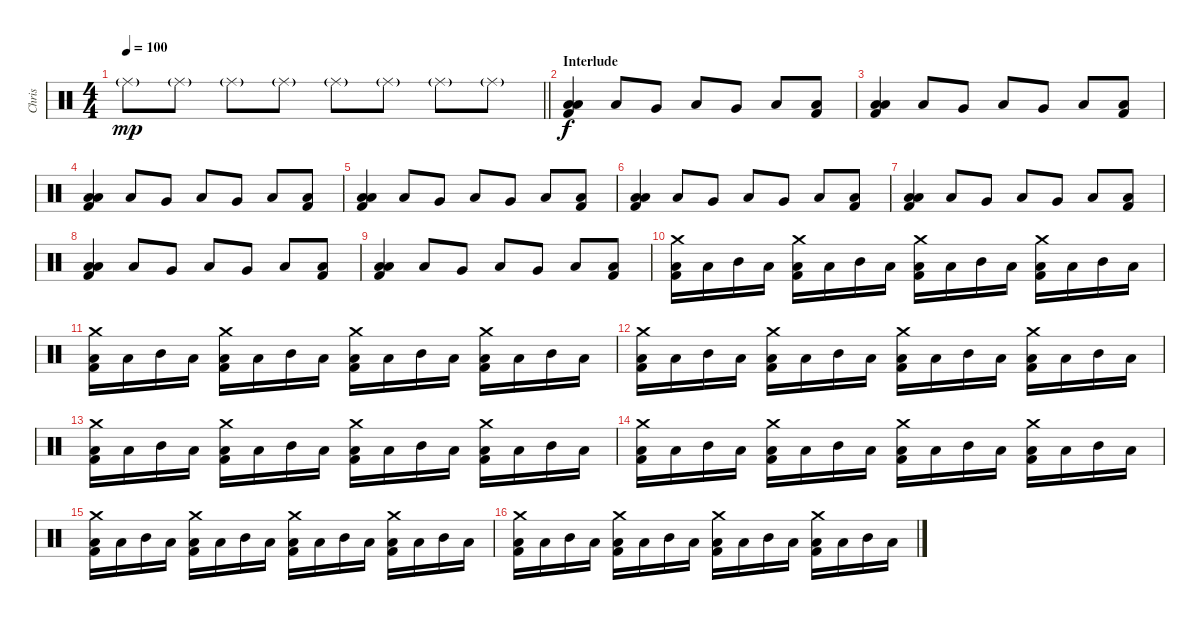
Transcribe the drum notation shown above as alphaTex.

\track ("Chris" "Chris") {instrument percussion}
\staff {score}
\articulation defaults
\ts (4 4)
\tempo 100
\clef neutral
\barLineRight lightlight
\ks c "Ride (middle)"{g}.8{dy mp} "Ride (middle)"{g}.8 "Ride (middle)"{g}.8 "Ride (middle)"{g}.8 "Ride (middle)"{g}.8 "Ride (middle)"{g}.8 "Ride (middle)"{g}.8 "Ride (middle)"{g}.8
|
\section ("" "Interlude")
("Low Floor Tom (hit)" "Low Tom (hit)" "Kick (hit) 2").4{dy f} "Low Floor Tom (hit)".8 "Very Low Tom (hit)".8 "Low Tom (hit)".8 "Very Low Tom (hit)".8 "Low Floor Tom (hit)".8 ("Low Floor Tom (hit)" "Kick (hit) 2").8 |
("Low Floor Tom (hit)" "Low Tom (hit)" "Kick (hit) 2").4 "Low Floor Tom (hit)".8 "Very Low Tom (hit)".8 "Low Tom (hit)".8 "Very Low Tom (hit)".8 "Low Floor Tom (hit)".8 ("Low Floor Tom (hit)" "Kick (hit) 2").8 |
("Low Floor Tom (hit)" "Low Tom (hit)" "Kick (hit) 2").4 "Low Floor Tom (hit)".8 "Very Low Tom (hit)".8 "Low Tom (hit)".8 "Very Low Tom (hit)".8 "Low Floor Tom (hit)".8 ("Low Floor Tom (hit)" "Kick (hit) 2").8 |
("Low Floor Tom (hit)" "Low Tom (hit)" "Kick (hit) 2").4 "Low Floor Tom (hit)".8 "Very Low Tom (hit)".8 "Low Tom (hit)".8 "Very Low Tom (hit)".8 "Low Floor Tom (hit)".8 ("Low Floor Tom (hit)" "Kick (hit) 2").8 |
("Low Floor Tom (hit)" "Low Tom (hit)" "Kick (hit) 2").4 "Low Floor Tom (hit)".8 "Very Low Tom (hit)".8 "Low Tom (hit)".8 "Very Low Tom (hit)".8 "Low Floor Tom (hit)".8 ("Low Floor Tom (hit)" "Kick (hit) 2").8 |
("Low Floor Tom (hit)" "Low Tom (hit)" "Kick (hit) 2").4 "Low Floor Tom (hit)".8 "Very Low Tom (hit)".8 "Low Tom (hit)".8 "Very Low Tom (hit)".8 "Low Floor Tom (hit)".8 ("Low Floor Tom (hit)" "Kick (hit) 2").8 |
("Low Floor Tom (hit)" "Low Tom (hit)" "Kick (hit) 2").4 "Low Floor Tom (hit)".8 "Very Low Tom (hit)".8 "Low Tom (hit)".8 "Very Low Tom (hit)".8 "Low Floor Tom (hit)".8 ("Low Floor Tom (hit)" "Kick (hit) 2").8 |
("Low Floor Tom (hit)" "Low Tom (hit)" "Kick (hit) 2").4 "Low Floor Tom (hit)".8 "Very Low Tom (hit)".8 "Low Tom (hit)".8 "Very Low Tom (hit)".8 "Low Floor Tom (hit)".8 ("Low Floor Tom (hit)" "Kick (hit) 2").8 |
("Crash medium (hit)" "Low Tom (hit)" "Kick (hit) 2").16 "Low Tom (hit)".16 "Mid Tom (hit)".16 "Low Tom (hit)".16 ("Crash medium (hit)" "Low Tom (hit)" "Kick (hit) 2").16 "Low Tom (hit)".16 "Mid Tom (hit)".16 "Low Tom (hit)".16 ("Crash medium (hit)" "Low Tom (hit)" "Kick (hit) 2").16 "Low Tom (hit)".16 "Mid Tom (hit)".16 "Low Tom (hit)".16 ("Crash medium (hit)" "Low Tom (hit)" "Kick (hit) 2").16 "Low Tom (hit)".16 "Mid Tom (hit)".16 "Low Tom (hit)".16 |
("Crash medium (hit)" "Low Tom (hit)" "Kick (hit) 2").16 "Low Tom (hit)".16 "Mid Tom (hit)".16 "Low Tom (hit)".16 ("Crash medium (hit)" "Low Tom (hit)" "Kick (hit) 2").16 "Low Tom (hit)".16 "Mid Tom (hit)".16 "Low Tom (hit)".16 ("Crash medium (hit)" "Low Tom (hit)" "Kick (hit) 2").16 "Low Tom (hit)".16 "Mid Tom (hit)".16 "Low Tom (hit)".16 ("Crash medium (hit)" "Low Tom (hit)" "Kick (hit) 2").16 "Low Tom (hit)".16 "Mid Tom (hit)".16 "Low Tom (hit)".16 |
("Crash medium (hit)" "Low Tom (hit)" "Kick (hit) 2").16 "Low Tom (hit)".16 "Mid Tom (hit)".16 "Low Tom (hit)".16 ("Crash medium (hit)" "Low Tom (hit)" "Kick (hit) 2").16 "Low Tom (hit)".16 "Mid Tom (hit)".16 "Low Tom (hit)".16 ("Crash medium (hit)" "Low Tom (hit)" "Kick (hit) 2").16 "Low Tom (hit)".16 "Mid Tom (hit)".16 "Low Tom (hit)".16 ("Crash medium (hit)" "Low Tom (hit)" "Kick (hit) 2").16 "Low Tom (hit)".16 "Mid Tom (hit)".16 "Low Tom (hit)".16 |
("Crash medium (hit)" "Low Tom (hit)" "Kick (hit) 2").16 "Low Tom (hit)".16 "Mid Tom (hit)".16 "Low Tom (hit)".16 ("Crash medium (hit)" "Low Tom (hit)" "Kick (hit) 2").16 "Low Tom (hit)".16 "Mid Tom (hit)".16 "Low Tom (hit)".16 ("Crash medium (hit)" "Low Tom (hit)" "Kick (hit) 2").16 "Low Tom (hit)".16 "Mid Tom (hit)".16 "Low Tom (hit)".16 ("Crash medium (hit)" "Low Tom (hit)" "Kick (hit) 2").16 "Low Tom (hit)".16 "Mid Tom (hit)".16 "Low Tom (hit)".16 |
("Crash medium (hit)" "Low Tom (hit)" "Kick (hit) 2").16 "Low Tom (hit)".16 "Mid Tom (hit)".16 "Low Tom (hit)".16 ("Crash medium (hit)" "Low Tom (hit)" "Kick (hit) 2").16 "Low Tom (hit)".16 "Mid Tom (hit)".16 "Low Tom (hit)".16 ("Crash medium (hit)" "Low Tom (hit)" "Kick (hit) 2").16 "Low Tom (hit)".16 "Mid Tom (hit)".16 "Low Tom (hit)".16 ("Crash medium (hit)" "Low Tom (hit)" "Kick (hit) 2").16 "Low Tom (hit)".16 "Mid Tom (hit)".16 "Low Tom (hit)".16 |
("Crash medium (hit)" "Low Tom (hit)" "Kick (hit) 2").16 "Low Tom (hit)".16 "Mid Tom (hit)".16 "Low Tom (hit)".16 ("Crash medium (hit)" "Low Tom (hit)" "Kick (hit) 2").16 "Low Tom (hit)".16 "Mid Tom (hit)".16 "Low Tom (hit)".16 ("Crash medium (hit)" "Low Tom (hit)" "Kick (hit) 2").16 "Low Tom (hit)".16 "Mid Tom (hit)".16 "Low Tom (hit)".16 ("Crash medium (hit)" "Low Tom (hit)" "Kick (hit) 2").16 "Low Tom (hit)".16 "Mid Tom (hit)".16 "Low Tom (hit)".16 |
("Crash medium (hit)" "Low Tom (hit)" "Kick (hit) 2").16 "Low Tom (hit)".16 "Mid Tom (hit)".16 "Low Tom (hit)".16 ("Crash medium (hit)" "Low Tom (hit)" "Kick (hit) 2").16 "Low Tom (hit)".16 "Mid Tom (hit)".16 "Low Tom (hit)".16 ("Crash medium (hit)" "Low Tom (hit)" "Kick (hit) 2").16 "Low Tom (hit)".16 "Mid Tom (hit)".16 "Low Tom (hit)".16 ("Crash medium (hit)" "Low Tom (hit)" "Kick (hit) 2").16 "Low Tom (hit)".16 "Mid Tom (hit)".16 "Low Tom (hit)".16
